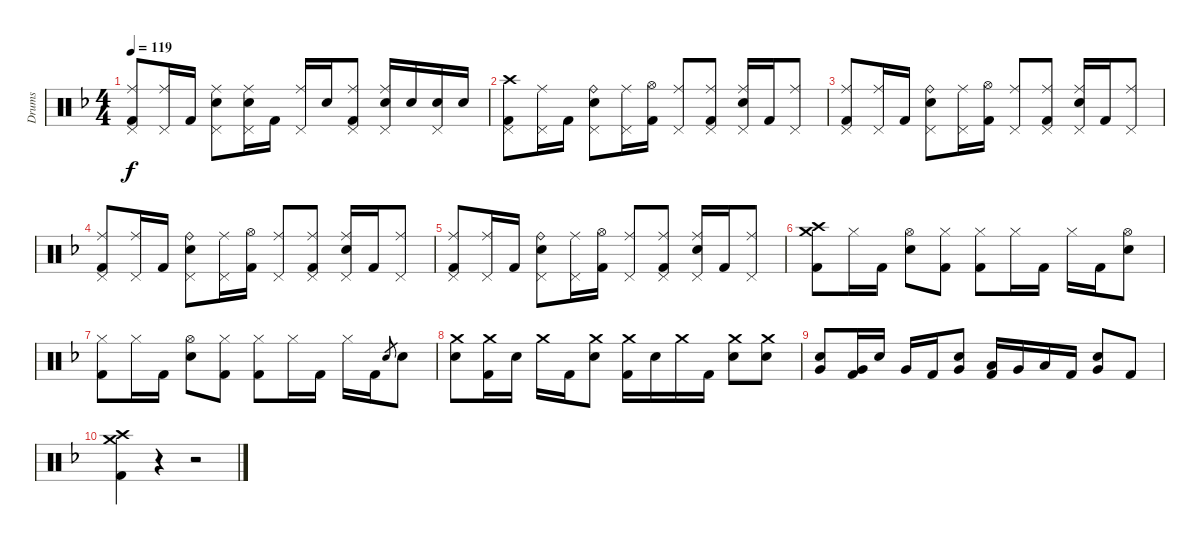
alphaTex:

\track ("Drums" "Drums") {instrument percussion}
\staff {score}
\articulation defaults
\ts (4 4)
\tempo 119
\clef neutral
\ks dminor
("Ride (middle)" "Pedal Hi-Hat (hit)" "Kick (hit) 2").8{dy f} ("Ride (middle)" "Pedal Hi-Hat (hit)").16 "Kick (hit) 2".16 ("Ride (middle)" "Electric Snare (hit)" "Pedal Hi-Hat (hit)").8 ("Ride (middle)" "Electric Snare (hit)" "Pedal Hi-Hat (hit)").16 "Kick (hit) 2".16 ("Ride (middle)" "Pedal Hi-Hat (hit)").16 "Electric Snare (hit)".16 ("Ride (middle)" "Pedal Hi-Hat (hit)" "Kick (hit) 2").8 ("Ride (middle)" "Electric Snare (hit)" "Pedal Hi-Hat (hit)").16 "Electric Snare (hit)".16 ("Electric Snare (hit)" "Pedal Hi-Hat (hit)").16 "Electric Snare (hit)".16 |
("Crash high (hit)" "Pedal Hi-Hat (hit)" "Kick (hit) 2").8 ("Ride (middle)" "Pedal Hi-Hat (hit)").16 "Kick (hit) 2".16 ("Ride (bell)" "Electric Snare (hit)" "Pedal Hi-Hat (hit)").8 ("Ride (middle)" "Pedal Hi-Hat (hit)").16 ("Hi-Hat (open)" "Kick (hit) 2").16 ("Ride (middle)" "Pedal Hi-Hat (hit)").8 ("Ride (middle)" "Pedal Hi-Hat (hit)" "Kick (hit) 2").8 ("Ride (middle)" "Electric Snare (hit)" "Pedal Hi-Hat (hit)").16 "Kick (hit) 2".16 ("Ride (middle)" "Pedal Hi-Hat (hit)").8 |
("Ride (middle)" "Pedal Hi-Hat (hit)" "Kick (hit) 2").8 ("Ride (middle)" "Pedal Hi-Hat (hit)").16 "Kick (hit) 2".16 ("Ride (bell)" "Electric Snare (hit)" "Pedal Hi-Hat (hit)").8 ("Ride (middle)" "Pedal Hi-Hat (hit)").16 ("Hi-Hat (open)" "Kick (hit) 2").16 ("Ride (middle)" "Pedal Hi-Hat (hit)").8 ("Ride (middle)" "Pedal Hi-Hat (hit)" "Kick (hit) 2").8 ("Ride (middle)" "Electric Snare (hit)" "Pedal Hi-Hat (hit)").16 "Kick (hit) 2".16 ("Ride (middle)" "Pedal Hi-Hat (hit)").8 |
("Ride (middle)" "Pedal Hi-Hat (hit)" "Kick (hit) 2").8 ("Ride (middle)" "Pedal Hi-Hat (hit)").16 "Kick (hit) 2".16 ("Ride (bell)" "Electric Snare (hit)" "Pedal Hi-Hat (hit)").8 ("Ride (middle)" "Pedal Hi-Hat (hit)").16 ("Hi-Hat (open)" "Kick (hit) 2").16 ("Ride (middle)" "Pedal Hi-Hat (hit)").8 ("Ride (middle)" "Pedal Hi-Hat (hit)" "Kick (hit) 2").8 ("Ride (middle)" "Electric Snare (hit)" "Pedal Hi-Hat (hit)").16 "Kick (hit) 2".16 ("Ride (middle)" "Pedal Hi-Hat (hit)").8 |
("Ride (middle)" "Pedal Hi-Hat (hit)" "Kick (hit) 2").8 ("Ride (middle)" "Pedal Hi-Hat (hit)").16 "Kick (hit) 2".16 ("Ride (bell)" "Electric Snare (hit)" "Pedal Hi-Hat (hit)").8 ("Ride (middle)" "Pedal Hi-Hat (hit)").16 ("Hi-Hat (open)" "Kick (hit) 2").16 ("Ride (middle)" "Pedal Hi-Hat (hit)").8 ("Ride (middle)" "Pedal Hi-Hat (hit)" "Kick (hit) 2").8 ("Ride (middle)" "Electric Snare (hit)" "Pedal Hi-Hat (hit)").16 "Kick (hit) 2".16 ("Ride (middle)" "Pedal Hi-Hat (hit)").8 |
("Crash high (hit)" "Crash medium (hit)" "Kick (hit) 2").8 "Hi-Hat (closed)".16 "Kick (hit) 2".16 ("Hi-Hat (open)" "Electric Snare (hit)").8 ("Hi-Hat (closed)" "Kick (hit) 2").8 ("Hi-Hat (closed)" "Kick (hit) 2").8 "Hi-Hat (closed)".16 "Kick (hit) 2".16 "Hi-Hat (closed)".16 "Kick (hit) 2".16 ("Hi-Hat (open)" "Electric Snare (hit)").8 |
("Hi-Hat (closed)" "Kick (hit) 2").8 "Hi-Hat (closed)".16 "Kick (hit) 2".16 ("Hi-Hat (open)" "Electric Snare (hit)").8 ("Hi-Hat (closed)" "Kick (hit) 2").8 ("Hi-Hat (closed)" "Kick (hit) 2").8 "Hi-Hat (closed)".16 "Kick (hit) 2".16 "Hi-Hat (closed)".16 "Kick (hit) 2".16 "Electric Snare (hit)".8{gr} "Electric Snare (hit)".8 |
("Crash medium (hit)" "Electric Snare (hit)").8 ("Crash medium (hit)" "Kick (hit) 2").16 "Electric Snare (hit)".16 "Crash medium (hit)".16 "Kick (hit) 2".16 ("Crash medium (hit)" "Electric Snare (hit)").8 ("Crash medium (hit)" "Kick (hit) 2").16 "Electric Snare (hit)".16 "Crash medium (hit)".16 "Kick (hit) 2".16 ("Crash medium (hit)" "Electric Snare (hit)").8 ("Crash medium (hit)" "Electric Snare (hit)").8 |
("Electric Snare (hit)" "Very Low Tom (hit)").8 ("Very Low Tom (hit)" "Kick (hit) 2").16 "Electric Snare (hit)".16 "Very Low Tom (hit)".16 "Kick (hit) 2".16 ("Electric Snare (hit)" "Very Low Tom (hit)").8 ("Low Floor Tom (hit)" "Kick (hit) 2").16 "Very Low Tom (hit)".16 "Low Floor Tom (hit)".16 "Kick (hit) 2".16 ("Electric Snare (hit)" "Very Low Tom (hit)").8 "Kick (hit) 2".8 |
("Crash high (hit)" "Crash medium (hit)" "Kick (hit) 2").4 r.4 r.2
